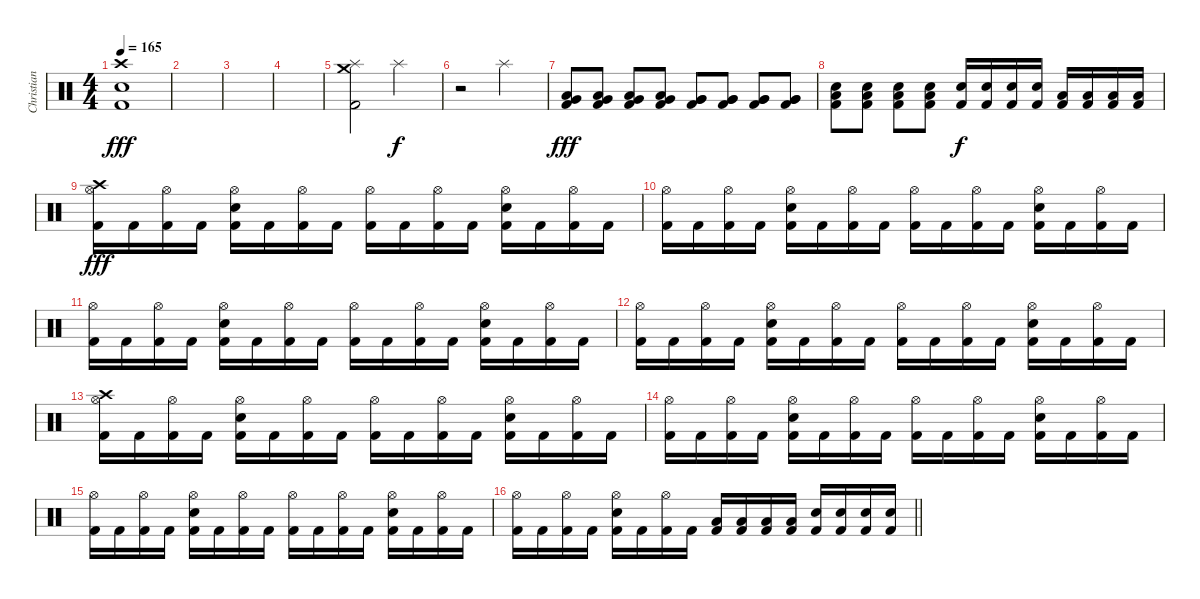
\track ("Christian Coma Mora (CC)" "Christian ") {instrument percussion}
\staff {score}
\articulation defaults
\ts (4 4)
\tempo 165
\clef neutral
\ks c
("Crash high (hit)" "Snare (hit) 2" "Kick (hit) 2").1{dy fff} |
|
|
|
("Crash medium (hit)" "Splash (hit)" "Kick (hit) 2").2 "Splash (hit)".2{dy f} |
r.2 "Splash (hit)".2 |
("Low Tom (hit)" "Very Low Tom (hit)" "Kick (hit) 2").8{dy fff} ("Low Tom (hit)" "Very Low Tom (hit)" "Kick (hit) 2").8 ("Low Tom (hit)" "Very Low Tom (hit)" "Kick (hit) 2").8 ("Low Tom (hit)" "Very Low Tom (hit)" "Kick (hit) 2").8 ("Very Low Tom (hit)" "Very Low Tom (hit)" "Kick (hit) 2").8 ("Very Low Tom (hit)" "Very Low Tom (hit)" "Kick (hit) 2").8 ("Very Low Tom (hit)" "Very Low Tom (hit)" "Kick (hit) 2").8 ("Very Low Tom (hit)" "Very Low Tom (hit)" "Kick (hit) 2").8 |
("Low Floor Tom (hit)" "Snare (hit) 2" "Kick (hit) 2").8 ("Low Floor Tom (hit)" "Snare (hit) 2" "Kick (hit) 2").8 ("Low Floor Tom (hit)" "Snare (hit) 2" "Kick (hit) 2").8 ("Low Floor Tom (hit)" "Snare (hit) 2" "Kick (hit) 2").8 ("Snare (hit) 2" "Kick (hit) 2").16{dy f} ("Snare (hit) 2" "Kick (hit) 2").16 ("Snare (hit) 2" "Kick (hit) 2").16 ("Snare (hit) 2" "Kick (hit) 2").16 ("Low Tom (hit)" "Kick (hit) 2").16 ("Low Tom (hit)" "Kick (hit) 2").16 ("Low Tom (hit)" "Kick (hit) 2").16 ("Low Tom (hit)" "Kick (hit) 2").16 |
("Crash high (hit)" "Hi-Hat (open)" "Kick (hit) 2").16{dy fff} "Kick (hit) 2".16 ("Hi-Hat (open)" "Kick (hit) 2").16 "Kick (hit) 2".16 ("Hi-Hat (open)" "Snare (hit) 2" "Kick (hit) 2").16 "Kick (hit) 2".16 ("Hi-Hat (open)" "Kick (hit) 2").16 "Kick (hit) 2".16 ("Hi-Hat (open)" "Kick (hit) 2").16 "Kick (hit) 2".16 ("Hi-Hat (open)" "Kick (hit) 2").16 "Kick (hit) 2".16 ("Hi-Hat (open)" "Snare (hit) 2" "Kick (hit) 2").16 "Kick (hit) 2".16 ("Hi-Hat (open)" "Kick (hit) 2").16 "Kick (hit) 2".16 |
("Hi-Hat (open)" "Kick (hit) 2").16 "Kick (hit) 2".16 ("Hi-Hat (open)" "Kick (hit) 2").16 "Kick (hit) 2".16 ("Hi-Hat (open)" "Snare (hit) 2" "Kick (hit) 2").16 "Kick (hit) 2".16 ("Hi-Hat (open)" "Kick (hit) 2").16 "Kick (hit) 2".16 ("Hi-Hat (open)" "Kick (hit) 2").16 "Kick (hit) 2".16 ("Hi-Hat (open)" "Kick (hit) 2").16 "Kick (hit) 2".16 ("Hi-Hat (open)" "Snare (hit) 2" "Kick (hit) 2").16 "Kick (hit) 2".16 ("Hi-Hat (open)" "Kick (hit) 2").16 "Kick (hit) 2".16 |
("Hi-Hat (open)" "Kick (hit) 2").16 "Kick (hit) 2".16 ("Hi-Hat (open)" "Kick (hit) 2").16 "Kick (hit) 2".16 ("Hi-Hat (open)" "Snare (hit) 2" "Kick (hit) 2").16 "Kick (hit) 2".16 ("Hi-Hat (open)" "Kick (hit) 2").16 "Kick (hit) 2".16 ("Hi-Hat (open)" "Kick (hit) 2").16 "Kick (hit) 2".16 ("Hi-Hat (open)" "Kick (hit) 2").16 "Kick (hit) 2".16 ("Hi-Hat (open)" "Snare (hit) 2" "Kick (hit) 2").16 "Kick (hit) 2".16 ("Hi-Hat (open)" "Kick (hit) 2").16 "Kick (hit) 2".16 |
("Hi-Hat (open)" "Kick (hit) 2").16 "Kick (hit) 2".16 ("Hi-Hat (open)" "Kick (hit) 2").16 "Kick (hit) 2".16 ("Hi-Hat (open)" "Snare (hit) 2" "Kick (hit) 2").16 "Kick (hit) 2".16 ("Hi-Hat (open)" "Kick (hit) 2").16 "Kick (hit) 2".16 ("Hi-Hat (open)" "Kick (hit) 2").16 "Kick (hit) 2".16 ("Hi-Hat (open)" "Kick (hit) 2").16 "Kick (hit) 2".16 ("Hi-Hat (open)" "Snare (hit) 2" "Kick (hit) 2").16 "Kick (hit) 2".16 ("Hi-Hat (open)" "Kick (hit) 2").16 "Kick (hit) 2".16 |
("Crash high (hit)" "Hi-Hat (open)" "Kick (hit) 2").16 "Kick (hit) 2".16 ("Hi-Hat (open)" "Kick (hit) 2").16 "Kick (hit) 2".16 ("Hi-Hat (open)" "Snare (hit) 2" "Kick (hit) 2").16 "Kick (hit) 2".16 ("Hi-Hat (open)" "Kick (hit) 2").16 "Kick (hit) 2".16 ("Hi-Hat (open)" "Kick (hit) 2").16 "Kick (hit) 2".16 ("Hi-Hat (open)" "Kick (hit) 2").16 "Kick (hit) 2".16 ("Hi-Hat (open)" "Snare (hit) 2" "Kick (hit) 2").16 "Kick (hit) 2".16 ("Hi-Hat (open)" "Kick (hit) 2").16 "Kick (hit) 2".16 |
("Hi-Hat (open)" "Kick (hit) 2").16 "Kick (hit) 2".16 ("Hi-Hat (open)" "Kick (hit) 2").16 "Kick (hit) 2".16 ("Hi-Hat (open)" "Snare (hit) 2" "Kick (hit) 2").16 "Kick (hit) 2".16 ("Hi-Hat (open)" "Kick (hit) 2").16 "Kick (hit) 2".16 ("Hi-Hat (open)" "Kick (hit) 2").16 "Kick (hit) 2".16 ("Hi-Hat (open)" "Kick (hit) 2").16 "Kick (hit) 2".16 ("Hi-Hat (open)" "Snare (hit) 2" "Kick (hit) 2").16 "Kick (hit) 2".16 ("Hi-Hat (open)" "Kick (hit) 2").16 "Kick (hit) 2".16 |
("Hi-Hat (open)" "Kick (hit) 2").16 "Kick (hit) 2".16 ("Hi-Hat (open)" "Kick (hit) 2").16 "Kick (hit) 2".16 ("Hi-Hat (open)" "Snare (hit) 2" "Kick (hit) 2").16 "Kick (hit) 2".16 ("Hi-Hat (open)" "Kick (hit) 2").16 "Kick (hit) 2".16 ("Hi-Hat (open)" "Kick (hit) 2").16 "Kick (hit) 2".16 ("Hi-Hat (open)" "Kick (hit) 2").16 "Kick (hit) 2".16 ("Hi-Hat (open)" "Snare (hit) 2" "Kick (hit) 2").16 "Kick (hit) 2".16 ("Hi-Hat (open)" "Kick (hit) 2").16 "Kick (hit) 2".16 |
\barLineRight lightlight
("Hi-Hat (open)" "Kick (hit) 2").16 "Kick (hit) 2".16 ("Hi-Hat (open)" "Kick (hit) 2").16 "Kick (hit) 2".16 ("Hi-Hat (open)" "Snare (hit) 2" "Kick (hit) 2").16 "Kick (hit) 2".16 ("Hi-Hat (open)" "Kick (hit) 2").16 "Kick (hit) 2".16 ("Low Tom (hit)" "Kick (hit) 2").16 ("Low Tom (hit)" "Kick (hit) 2").16 ("Low Tom (hit)" "Kick (hit) 2").16 ("Low Tom (hit)" "Kick (hit) 2").16 ("Snare (hit) 2" "Kick (hit) 2").16 ("Snare (hit) 2" "Kick (hit) 2").16 ("Snare (hit) 2" "Kick (hit) 2").16 ("Snare (hit) 2" "Kick (hit) 2").16
